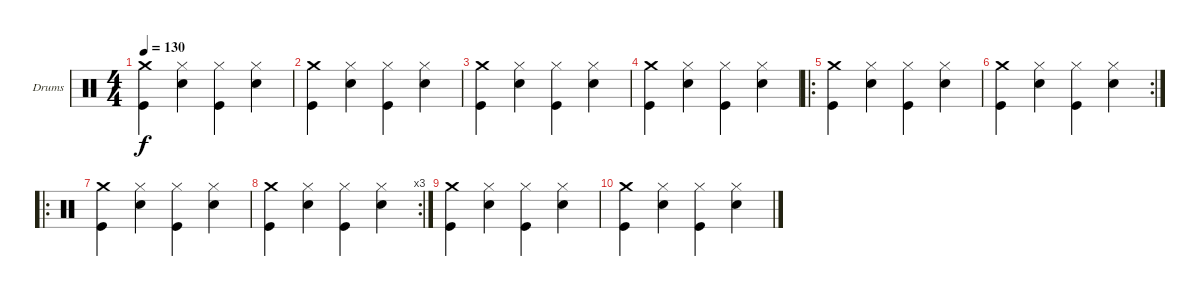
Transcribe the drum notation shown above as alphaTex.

\bracketExtendMode groupsimilarinstruments
\firstSystemTrackNameOrientation horizontal
\otherSystemsTrackNameOrientation horizontal
\track ("Drumkit" "Drums") {instrument percussion}
\staff {score}
\articulation defaults
\ts (4 4)
\tempo 130
\clef neutral
\ks c
("Crash medium (hit)" "Kick (hit)").4{dy f} ("Hi-Hat (closed)" "Snare (hit) 2").4 ("Hi-Hat (closed)" "Kick (hit)").4 ("Hi-Hat (closed)" "Snare (hit) 2").4 |
("Crash medium (hit)" "Kick (hit)").4 ("Hi-Hat (closed)" "Snare (hit) 2").4 ("Hi-Hat (closed)" "Kick (hit)").4 ("Hi-Hat (closed)" "Snare (hit) 2").4 |
("Crash medium (hit)" "Kick (hit)").4 ("Hi-Hat (closed)" "Snare (hit) 2").4 ("Hi-Hat (closed)" "Kick (hit)").4 ("Hi-Hat (closed)" "Snare (hit) 2").4 |
("Crash medium (hit)" "Kick (hit)").4 ("Hi-Hat (closed)" "Snare (hit) 2").4 ("Hi-Hat (closed)" "Kick (hit)").4 ("Hi-Hat (closed)" "Snare (hit) 2").4 |
\ro
("Crash medium (hit)" "Kick (hit)").4 ("Hi-Hat (closed)" "Snare (hit) 2").4 ("Hi-Hat (closed)" "Kick (hit)").4 ("Hi-Hat (closed)" "Snare (hit) 2").4 |
\rc 2
("Crash medium (hit)" "Kick (hit)").4 ("Hi-Hat (closed)" "Snare (hit) 2").4 ("Hi-Hat (closed)" "Kick (hit)").4 ("Hi-Hat (closed)" "Snare (hit) 2").4 |
\ro
("Crash medium (hit)" "Kick (hit)").4 ("Hi-Hat (closed)" "Snare (hit) 2").4 ("Hi-Hat (closed)" "Kick (hit)").4 ("Hi-Hat (closed)" "Snare (hit) 2").4 |
\rc 3
("Crash medium (hit)" "Kick (hit)").4 ("Hi-Hat (closed)" "Snare (hit) 2").4 ("Hi-Hat (closed)" "Kick (hit)").4 ("Hi-Hat (closed)" "Snare (hit) 2").4 |
("Crash medium (hit)" "Kick (hit)").4 ("Hi-Hat (closed)" "Snare (hit) 2").4 ("Hi-Hat (closed)" "Kick (hit)").4 ("Hi-Hat (closed)" "Snare (hit) 2").4 |
("Crash medium (hit)" "Kick (hit)").4 ("Hi-Hat (closed)" "Snare (hit) 2").4 ("Hi-Hat (closed)" "Kick (hit)").4 ("Hi-Hat (closed)" "Snare (hit) 2").4
